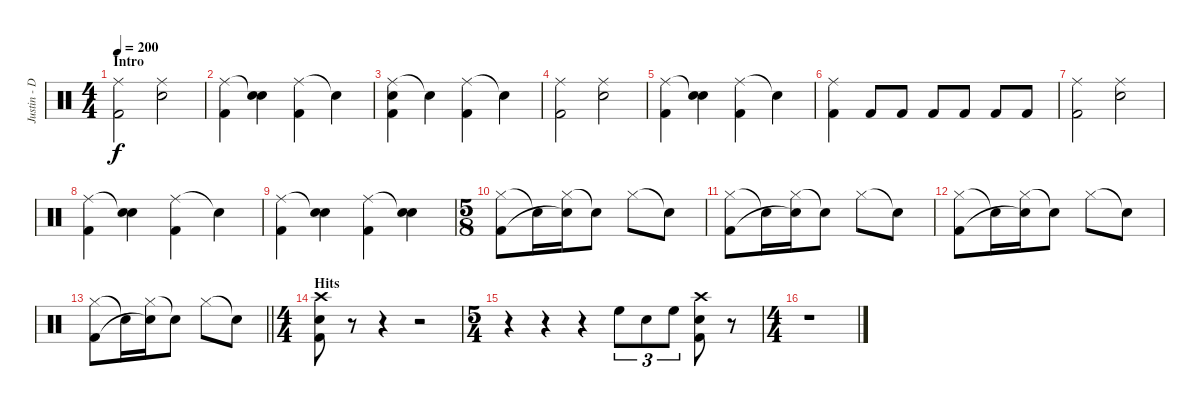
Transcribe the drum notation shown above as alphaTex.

\track ("Justin - Drums" "Justin - D") {instrument percussion}
\staff {score}
\articulation defaults
\ts (4 4)
\section ("" "Intro")
\tempo 200
\clef neutral
\ks c
("Ride (middle)" "Kick (hit) 2").2{dy f} ("Ride (middle)" "Snare (hit) 2").2 |
("Ride (middle)" "Kick (hit) 2").4 ("Snare (hit)"{t} "Snare (hit) 2").4 ("Ride (middle)" "Kick (hit) 2").4 "Snare (hit)"{t}.4 |
("Ride (middle)" "Snare (hit) 2" "Kick (hit) 2").4 "Snare (hit)"{t}.4 ("Ride (middle)" "Kick (hit) 2").4 "Snare (hit)"{t}.4 |
("Ride (middle)" "Kick (hit) 2").2 ("Ride (middle)" "Snare (hit) 2").2 |
("Ride (middle)" "Kick (hit) 2").4 ("Snare (hit)"{t} "Snare (hit) 2").4 ("Ride (middle)" "Kick (hit) 2").4 "Snare (hit)"{t}.4 |
("Ride (middle)" "Kick (hit) 2").4 "Kick (hit) 2".8 "Kick (hit) 2".8 "Kick (hit) 2".8 "Kick (hit) 2".8 "Kick (hit) 2".8 "Kick (hit) 2".8 |
("Ride (middle)" "Kick (hit) 2").2 ("Ride (middle)" "Snare (hit) 2").2 |
("Ride (middle)" "Kick (hit) 2").4 ("Snare (hit)"{t} "Snare (hit) 2").4 ("Ride (middle)" "Kick (hit) 2").4 "Snare (hit)"{t}.4 |
("Ride (middle)" "Kick (hit) 2").4 ("Snare (hit)"{t} "Snare (hit) 2").4 ("Ride (middle)" "Kick (hit) 2").4 ("Snare (hit)"{t} "Snare (hit) 2").4 |
\ts (5 8)
("Hi-Hat (closed)" "Kick (hit) 2").8 "Snare (hit)"{t}.16 ("Hi-Hat (closed)" "Snare (hit)"{t}).16 "Snare (hit)"{t}.8 "Hi-Hat (closed)".8 "Snare (hit)"{t}.8 |
("Hi-Hat (closed)" "Kick (hit) 2").8 "Snare (hit)"{t}.16 ("Hi-Hat (closed)" "Snare (hit)"{t}).16 "Snare (hit)"{t}.8 "Hi-Hat (closed)".8 "Snare (hit)"{t}.8 |
("Hi-Hat (closed)" "Kick (hit) 2").8 "Snare (hit)"{t}.16 ("Hi-Hat (closed)" "Snare (hit)"{t}).16 "Snare (hit)"{t}.8 "Hi-Hat (closed)".8 "Snare (hit)"{t}.8 |
\barLineRight lightlight
("Hi-Hat (closed)" "Kick (hit) 2").8 "Snare (hit)"{t}.16 ("Hi-Hat (closed)" "Snare (hit)"{t}).16 "Snare (hit)"{t}.8 "Hi-Hat (closed)".8 "Snare (hit)"{t}.8 |
\ts (4 4)
\section ("" "Hits")
("Crash high (hit)" "Snare (hit) 2" "Kick (hit) 2").8 r.8 r.4 r.2 |
\ts (5 4)
r.4 r.4 r.4 "High Floor Tom (hit)".8{tu (3 2)} "Snare (hit) 2".8{tu (3 2)} "High Floor Tom (hit)".8{tu (3 2)} ("Crash high (hit)" "Snare (hit) 2" "Kick (hit) 2").8 r.8 |
\ts (4 4)
r.1
